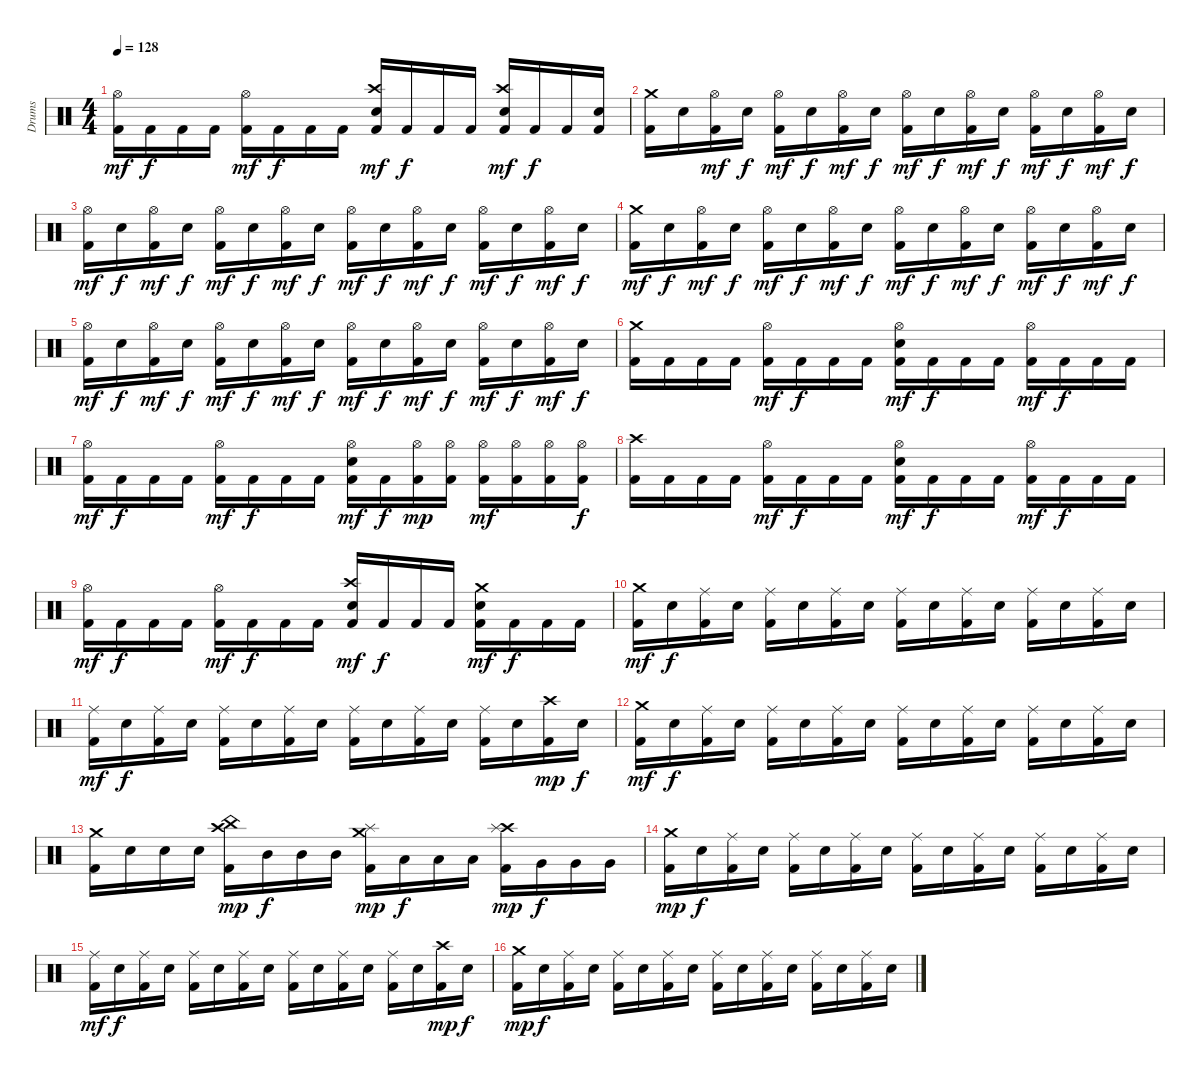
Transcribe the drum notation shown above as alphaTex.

\track ("Drums" "Drums") {instrument percussion}
\staff {score}
\articulation defaults
\ts (4 4)
\tempo 128
\clef neutral
\ks c
("Hi-Hat (open)" "Kick (hit) 2").16{dy mf} "Kick (hit) 2".16{dy f} "Kick (hit) 2".16 "Kick (hit) 2".16 ("Hi-Hat (open)" "Kick (hit) 2").16{dy mf} "Kick (hit) 2".16{dy f} "Kick (hit) 2".16 "Kick (hit) 2".16 ("Crash high (hit)" "Electric Snare (hit)" "Kick (hit) 2").16{dy mf} "Kick (hit) 2".16{dy f} "Kick (hit) 2".16 "Kick (hit) 2".16 ("Crash high (hit)" "Electric Snare (hit)" "Kick (hit) 2").16{dy mf} "Kick (hit) 2".16{dy f} "Kick (hit) 2".16 ("Electric Snare (hit)" "Kick (hit) 2").16 |
("Crash medium (hit)" "Kick (hit) 2").16 "Electric Snare (hit)".16 ("Hi-Hat (open)" "Kick (hit) 2").16{dy mf} "Electric Snare (hit)".16{dy f} ("Hi-Hat (open)" "Kick (hit) 2").16{dy mf} "Electric Snare (hit)".16{dy f} ("Hi-Hat (open)" "Kick (hit) 2").16{dy mf} "Electric Snare (hit)".16{dy f} ("Hi-Hat (open)" "Kick (hit) 2").16{dy mf} "Electric Snare (hit)".16{dy f} ("Hi-Hat (open)" "Kick (hit) 2").16{dy mf} "Electric Snare (hit)".16{dy f} ("Hi-Hat (open)" "Kick (hit) 2").16{dy mf} "Electric Snare (hit)".16{dy f} ("Hi-Hat (open)" "Kick (hit) 2").16{dy mf} "Electric Snare (hit)".16{dy f} |
("Hi-Hat (open)" "Kick (hit) 2").16{dy mf} "Electric Snare (hit)".16{dy f} ("Hi-Hat (open)" "Kick (hit) 2").16{dy mf} "Electric Snare (hit)".16{dy f} ("Hi-Hat (open)" "Kick (hit) 2").16{dy mf} "Electric Snare (hit)".16{dy f} ("Hi-Hat (open)" "Kick (hit) 2").16{dy mf} "Electric Snare (hit)".16{dy f} ("Hi-Hat (open)" "Kick (hit) 2").16{dy mf} "Electric Snare (hit)".16{dy f} ("Hi-Hat (open)" "Kick (hit) 2").16{dy mf} "Electric Snare (hit)".16{dy f} ("Hi-Hat (open)" "Kick (hit) 2").16{dy mf} "Electric Snare (hit)".16{dy f} ("Hi-Hat (open)" "Kick (hit) 2").16{dy mf} "Electric Snare (hit)".16{dy f} |
("Crash medium (hit)" "Kick (hit) 2").16{dy mf} "Electric Snare (hit)".16{dy f} ("Hi-Hat (open)" "Kick (hit) 2").16{dy mf} "Electric Snare (hit)".16{dy f} ("Hi-Hat (open)" "Kick (hit) 2").16{dy mf} "Electric Snare (hit)".16{dy f} ("Hi-Hat (open)" "Kick (hit) 2").16{dy mf} "Electric Snare (hit)".16{dy f} ("Hi-Hat (open)" "Kick (hit) 2").16{dy mf} "Electric Snare (hit)".16{dy f} ("Hi-Hat (open)" "Kick (hit) 2").16{dy mf} "Electric Snare (hit)".16{dy f} ("Hi-Hat (open)" "Kick (hit) 2").16{dy mf} "Electric Snare (hit)".16{dy f} ("Hi-Hat (open)" "Kick (hit) 2").16{dy mf} "Electric Snare (hit)".16{dy f} |
("Hi-Hat (open)" "Kick (hit) 2").16{dy mf} "Electric Snare (hit)".16{dy f} ("Hi-Hat (open)" "Kick (hit) 2").16{dy mf} "Electric Snare (hit)".16{dy f} ("Hi-Hat (open)" "Kick (hit) 2").16{dy mf} "Electric Snare (hit)".16{dy f} ("Hi-Hat (open)" "Kick (hit) 2").16{dy mf} "Electric Snare (hit)".16{dy f} ("Hi-Hat (open)" "Kick (hit) 2").16{dy mf} "Electric Snare (hit)".16{dy f} ("Hi-Hat (open)" "Kick (hit) 2").16{dy mf} "Electric Snare (hit)".16{dy f} ("Hi-Hat (open)" "Kick (hit) 2").16{dy mf} "Electric Snare (hit)".16{dy f} ("Hi-Hat (open)" "Kick (hit) 2").16{dy mf} "Electric Snare (hit)".16{dy f} |
("Crash medium (hit)" "Kick (hit) 2").16 "Kick (hit) 2".16 "Kick (hit) 2".16 "Kick (hit) 2".16 ("Hi-Hat (open)" "Kick (hit) 2").16{dy mf} "Kick (hit) 2".16{dy f} "Kick (hit) 2".16 "Kick (hit) 2".16 ("Hi-Hat (open)" "Electric Snare (hit)" "Kick (hit) 2").16{dy mf} "Kick (hit) 2".16{dy f} "Kick (hit) 2".16 "Kick (hit) 2".16 ("Hi-Hat (open)" "Kick (hit) 2").16{dy mf} "Kick (hit) 2".16{dy f} "Kick (hit) 2".16 "Kick (hit) 2".16 |
("Hi-Hat (open)" "Kick (hit) 2").16{dy mf} "Kick (hit) 2".16{dy f} "Kick (hit) 2".16 "Kick (hit) 2".16 ("Hi-Hat (open)" "Kick (hit) 2").16{dy mf} "Kick (hit) 2".16{dy f} "Kick (hit) 2".16 "Kick (hit) 2".16 ("Hi-Hat (open)" "Electric Snare (hit)" "Kick (hit) 2").16{dy mf} "Kick (hit) 2".16{dy f} ("Hi-Hat (open)" "Kick (hit) 2").16{dy mp} ("Hi-Hat (open)" "Kick (hit) 2").16 ("Hi-Hat (open)" "Kick (hit) 2").16{dy mf} ("Hi-Hat (open)" "Kick (hit) 2").16 ("Hi-Hat (open)" "Kick (hit) 2").16 ("Hi-Hat (open)" "Kick (hit) 2").16{dy f} |
("Crash high (hit)" "Kick (hit) 2").16 "Kick (hit) 2".16 "Kick (hit) 2".16 "Kick (hit) 2".16 ("Hi-Hat (open)" "Kick (hit) 2").16{dy mf} "Kick (hit) 2".16{dy f} "Kick (hit) 2".16 "Kick (hit) 2".16 ("Hi-Hat (open)" "Electric Snare (hit)" "Kick (hit) 2").16{dy mf} "Kick (hit) 2".16{dy f} "Kick (hit) 2".16 "Kick (hit) 2".16 ("Hi-Hat (open)" "Kick (hit) 2").16{dy mf} "Kick (hit) 2".16{dy f} "Kick (hit) 2".16 "Kick (hit) 2".16 |
("Hi-Hat (open)" "Kick (hit) 2").16{dy mf} "Kick (hit) 2".16{dy f} "Kick (hit) 2".16 "Kick (hit) 2".16 ("Hi-Hat (open)" "Kick (hit) 2").16{dy mf} "Kick (hit) 2".16{dy f} "Kick (hit) 2".16 "Kick (hit) 2".16 ("Crash high (hit)" "Electric Snare (hit)" "Kick (hit) 2").16{dy mf} "Kick (hit) 2".16{dy f} "Kick (hit) 2".16 "Kick (hit) 2".16 ("Crash medium (hit)" "Electric Snare (hit)" "Kick (hit) 2").16{dy mf} "Kick (hit) 2".16{dy f} "Kick (hit) 2".16 "Kick (hit) 2".16 |
("Crash medium (hit)" "Kick (hit) 2").16{dy mf} "Electric Snare (hit)".16{dy f} ("Ride (middle)" "Kick (hit) 2").16 "Electric Snare (hit)".16 ("Ride (middle)" "Kick (hit) 2").16 "Electric Snare (hit)".16 ("Ride (middle)" "Kick (hit) 2").16 "Electric Snare (hit)".16 ("Ride (middle)" "Kick (hit) 2").16 "Electric Snare (hit)".16 ("Ride (middle)" "Kick (hit) 2").16 "Electric Snare (hit)".16 ("Ride (middle)" "Kick (hit) 2").16 "Electric Snare (hit)".16 ("Ride (middle)" "Kick (hit) 2").16 "Electric Snare (hit)".16 |
("Ride (middle)" "Kick (hit) 2").16{dy mf} "Electric Snare (hit)".16{dy f} ("Ride (middle)" "Kick (hit) 2").16 "Electric Snare (hit)".16 ("Ride (middle)" "Kick (hit) 2").16 "Electric Snare (hit)".16 ("Ride (middle)" "Kick (hit) 2").16 "Electric Snare (hit)".16 ("Ride (middle)" "Kick (hit) 2").16 "Electric Snare (hit)".16 ("Ride (middle)" "Kick (hit) 2").16 "Electric Snare (hit)".16 ("Ride (middle)" "Kick (hit) 2").16 "Electric Snare (hit)".16 ("Crash high (hit)" "Kick (hit) 2").16{dy mp} "Electric Snare (hit)".16{dy f} |
("Crash medium (hit)" "Kick (hit) 2").16{dy mf} "Electric Snare (hit)".16{dy f} ("Ride (middle)" "Kick (hit) 2").16 "Electric Snare (hit)".16 ("Ride (middle)" "Kick (hit) 2").16 "Electric Snare (hit)".16 ("Ride (middle)" "Kick (hit) 2").16 "Electric Snare (hit)".16 ("Ride (middle)" "Kick (hit) 2").16 "Electric Snare (hit)".16 ("Ride (middle)" "Kick (hit) 2").16 "Electric Snare (hit)".16 ("Ride (middle)" "Kick (hit) 2").16 "Electric Snare (hit)".16 ("Ride (middle)" "Kick (hit) 2").16 "Electric Snare (hit)".16 |
("Crash medium (hit)" "Kick (hit) 2").16 "Electric Snare (hit)".16 "Electric Snare (hit)".16 "Electric Snare (hit)".16 ("Crash high (hit)" "China (hit)" "Kick (hit) 2").16{dy mp} "Mid Tom (hit)".16{dy f} "Mid Tom (hit)".16 "Mid Tom (hit)".16 ("Crash medium (hit)" "Splash (hit)" "Kick (hit) 2").16{dy mp} "Low Tom (hit)".16{dy f} "Low Tom (hit)".16 "Low Tom (hit)".16 ("Crash high (hit)" "Splash (hit)" "Kick (hit) 2").16{dy mp} "Very Low Tom (hit)".16{dy f} "Very Low Tom (hit)".16 "Very Low Tom (hit)".16 |
("Crash medium (hit)" "Kick (hit) 2").16{dy mp} "Electric Snare (hit)".16{dy f} ("Ride (middle)" "Kick (hit) 2").16 "Electric Snare (hit)".16 ("Ride (middle)" "Kick (hit) 2").16 "Electric Snare (hit)".16 ("Ride (middle)" "Kick (hit) 2").16 "Electric Snare (hit)".16 ("Ride (middle)" "Kick (hit) 2").16 "Electric Snare (hit)".16 ("Ride (middle)" "Kick (hit) 2").16 "Electric Snare (hit)".16 ("Ride (middle)" "Kick (hit) 2").16 "Electric Snare (hit)".16 ("Ride (middle)" "Kick (hit) 2").16 "Electric Snare (hit)".16 |
("Ride (middle)" "Kick (hit) 2").16{dy mf} "Electric Snare (hit)".16{dy f} ("Ride (middle)" "Kick (hit) 2").16 "Electric Snare (hit)".16 ("Ride (middle)" "Kick (hit) 2").16 "Electric Snare (hit)".16 ("Ride (middle)" "Kick (hit) 2").16 "Electric Snare (hit)".16 ("Ride (middle)" "Kick (hit) 2").16 "Electric Snare (hit)".16 ("Ride (middle)" "Kick (hit) 2").16 "Electric Snare (hit)".16 ("Ride (middle)" "Kick (hit) 2").16 "Electric Snare (hit)".16 ("Crash high (hit)" "Kick (hit) 2").16{dy mp} "Electric Snare (hit)".16{dy f} |
("Crash medium (hit)" "Kick (hit) 2").16{dy mp} "Electric Snare (hit)".16{dy f} ("Ride (middle)" "Kick (hit) 2").16 "Electric Snare (hit)".16 ("Ride (middle)" "Kick (hit) 2").16 "Electric Snare (hit)".16 ("Ride (middle)" "Kick (hit) 2").16 "Electric Snare (hit)".16 ("Ride (middle)" "Kick (hit) 2").16 "Electric Snare (hit)".16 ("Ride (middle)" "Kick (hit) 2").16 "Electric Snare (hit)".16 ("Ride (middle)" "Kick (hit) 2").16 "Electric Snare (hit)".16 ("Ride (middle)" "Kick (hit) 2").16 "Electric Snare (hit)".16
